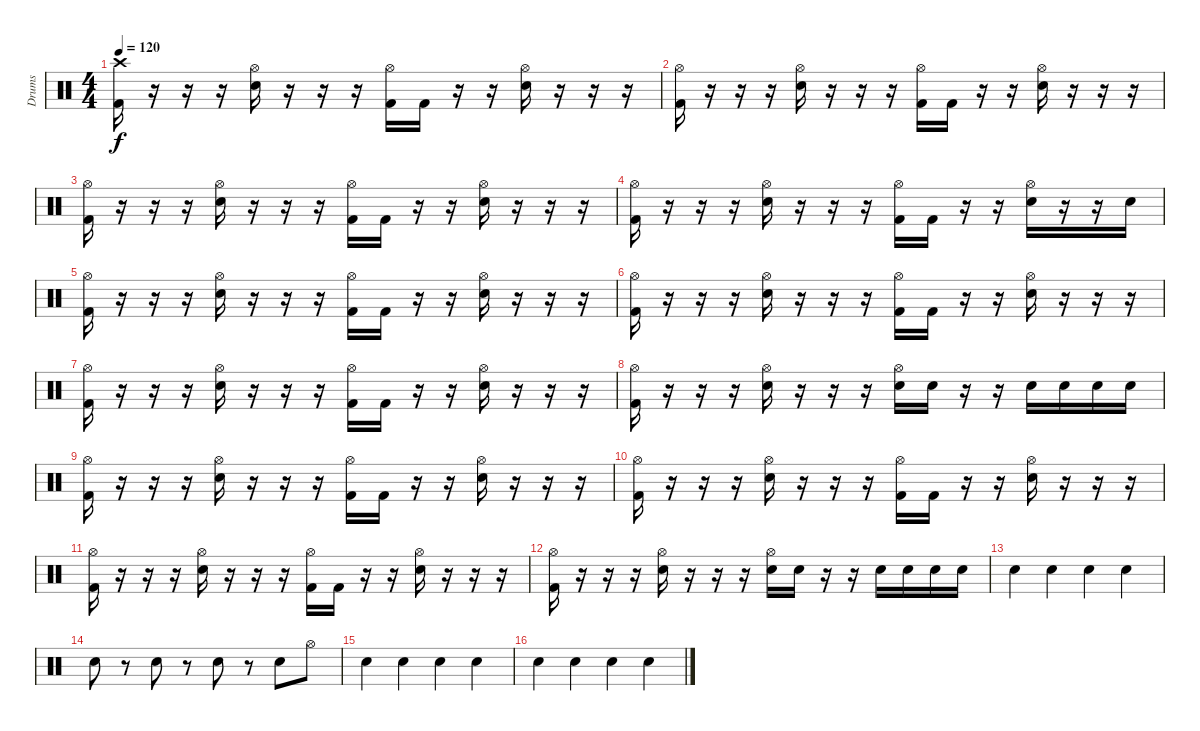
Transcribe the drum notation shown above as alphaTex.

\track ("Drums" "Drums") {instrument percussion}
\staff {score}
\articulation defaults
\ts (4 4)
\tempo 120
\clef neutral
\ks c
("Crash high (hit)" "Kick (hit) 2").16{dy f} r.16 r.16 r.16 ("Hi-Hat (open)" "Electric Snare (hit)").16 r.16 r.16 r.16 ("Hi-Hat (open)" "Kick (hit) 2").16 "Kick (hit) 2".16 r.16 r.16 ("Hi-Hat (open)" "Electric Snare (hit)").16 r.16 r.16 r.16 |
("Hi-Hat (open)" "Kick (hit) 2").16 r.16 r.16 r.16 ("Hi-Hat (open)" "Electric Snare (hit)").16 r.16 r.16 r.16 ("Hi-Hat (open)" "Kick (hit) 2").16 "Kick (hit) 2".16 r.16 r.16 ("Hi-Hat (open)" "Electric Snare (hit)").16 r.16 r.16 r.16 |
("Hi-Hat (open)" "Kick (hit) 2").16 r.16 r.16 r.16 ("Hi-Hat (open)" "Electric Snare (hit)").16 r.16 r.16 r.16 ("Hi-Hat (open)" "Kick (hit) 2").16 "Kick (hit) 2".16 r.16 r.16 ("Hi-Hat (open)" "Electric Snare (hit)").16 r.16 r.16 r.16 |
("Hi-Hat (open)" "Kick (hit) 2").16 r.16 r.16 r.16 ("Hi-Hat (open)" "Electric Snare (hit)").16 r.16 r.16 r.16 ("Hi-Hat (open)" "Kick (hit) 2").16 "Kick (hit) 2".16 r.16 r.16 ("Hi-Hat (open)" "Electric Snare (hit)").16 r.16 r.16 "Electric Snare (hit)".16 |
("Hi-Hat (open)" "Kick (hit) 2").16 r.16 r.16 r.16 ("Hi-Hat (open)" "Electric Snare (hit)").16 r.16 r.16 r.16 ("Hi-Hat (open)" "Kick (hit) 2").16 "Kick (hit) 2".16 r.16 r.16 ("Hi-Hat (open)" "Electric Snare (hit)").16 r.16 r.16 r.16 |
("Hi-Hat (open)" "Kick (hit) 2").16 r.16 r.16 r.16 ("Hi-Hat (open)" "Electric Snare (hit)").16 r.16 r.16 r.16 ("Hi-Hat (open)" "Kick (hit) 2").16 "Kick (hit) 2".16 r.16 r.16 ("Hi-Hat (open)" "Electric Snare (hit)").16 r.16 r.16 r.16 |
("Hi-Hat (open)" "Kick (hit) 2").16 r.16 r.16 r.16 ("Hi-Hat (open)" "Electric Snare (hit)").16 r.16 r.16 r.16 ("Hi-Hat (open)" "Kick (hit) 2").16 "Kick (hit) 2".16 r.16 r.16 ("Hi-Hat (open)" "Electric Snare (hit)").16 r.16 r.16 r.16 |
("Hi-Hat (open)" "Kick (hit) 2").16 r.16 r.16 r.16 ("Hi-Hat (open)" "Electric Snare (hit)").16 r.16 r.16 r.16 ("Hi-Hat (open)" "Electric Snare (hit)").16 "Electric Snare (hit)".16 r.16 r.16 "Electric Snare (hit)".16 "Electric Snare (hit)".16 "Electric Snare (hit)".16 "Electric Snare (hit)".16 |
("Hi-Hat (open)" "Kick (hit) 2").16 r.16 r.16 r.16 ("Hi-Hat (open)" "Electric Snare (hit)").16 r.16 r.16 r.16 ("Hi-Hat (open)" "Kick (hit) 2").16 "Kick (hit) 2".16 r.16 r.16 ("Hi-Hat (open)" "Electric Snare (hit)").16 r.16 r.16 r.16 |
("Hi-Hat (open)" "Kick (hit) 2").16 r.16 r.16 r.16 ("Hi-Hat (open)" "Electric Snare (hit)").16 r.16 r.16 r.16 ("Hi-Hat (open)" "Kick (hit) 2").16 "Kick (hit) 2".16 r.16 r.16 ("Hi-Hat (open)" "Electric Snare (hit)").16 r.16 r.16 r.16 |
("Hi-Hat (open)" "Kick (hit) 2").16 r.16 r.16 r.16 ("Hi-Hat (open)" "Electric Snare (hit)").16 r.16 r.16 r.16 ("Hi-Hat (open)" "Kick (hit) 2").16 "Kick (hit) 2".16 r.16 r.16 ("Hi-Hat (open)" "Electric Snare (hit)").16 r.16 r.16 r.16 |
("Hi-Hat (open)" "Kick (hit) 2").16 r.16 r.16 r.16 ("Hi-Hat (open)" "Electric Snare (hit)").16 r.16 r.16 r.16 ("Hi-Hat (open)" "Electric Snare (hit)").16 "Electric Snare (hit)".16 r.16 r.16 "Electric Snare (hit)".16 "Electric Snare (hit)".16 "Electric Snare (hit)".16 "Electric Snare (hit)".16 |
"Hand Clap (hit)".4 "Hand Clap (hit)".4 "Hand Clap (hit)".4 "Hand Clap (hit)".4 |
"Hand Clap (hit)".8 r.8 "Hand Clap (hit)".8 r.8 "Hand Clap (hit)".8 r.8 "Hand Clap (hit)".8 "Hi-Hat (open)".8 |
"Hand Clap (hit)".4 "Hand Clap (hit)".4 "Hand Clap (hit)".4 "Hand Clap (hit)".4 |
"Hand Clap (hit)".4 "Hand Clap (hit)".4 "Hand Clap (hit)".4 "Hand Clap (hit)".4
